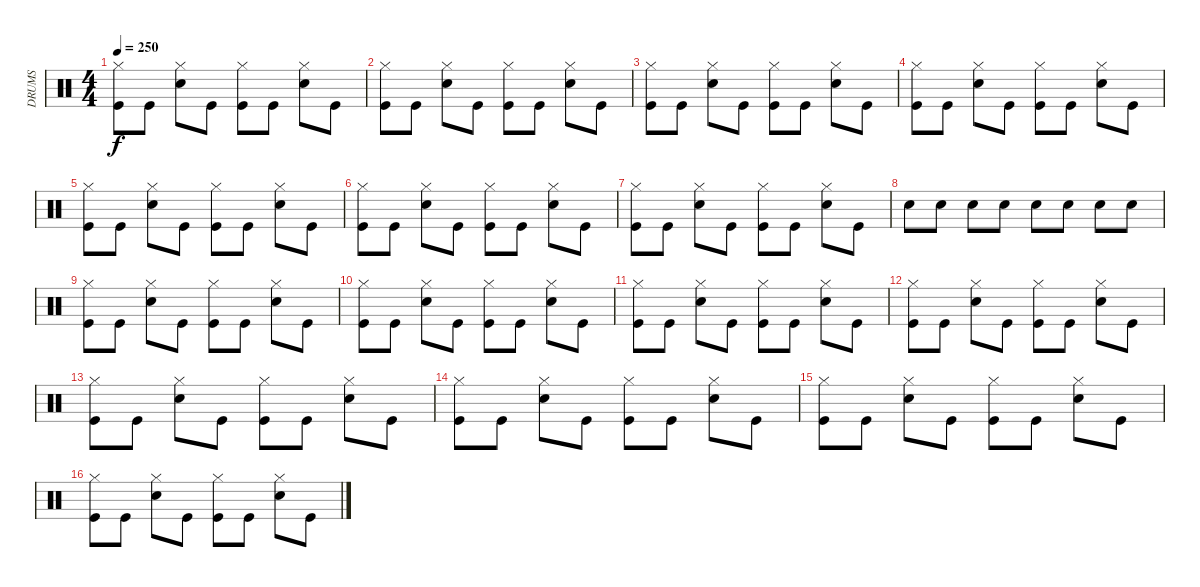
\track ("DRUMS" "DRUMS") {instrument percussion}
\staff {score}
\articulation defaults
\ts (4 4)
\tempo 250
\clef neutral
\ks aminor
("Hi-Hat (closed)" "Kick (hit)").8{dy f} "Kick (hit)".8 ("Hi-Hat (closed)" "Snare (hit) 2").8 "Kick (hit)".8 ("Hi-Hat (closed)" "Kick (hit)").8 "Kick (hit)".8 ("Hi-Hat (closed)" "Snare (hit) 2").8 "Kick (hit)".8 |
("Hi-Hat (closed)" "Kick (hit)").8 "Kick (hit)".8 ("Hi-Hat (closed)" "Snare (hit) 2").8 "Kick (hit)".8 ("Hi-Hat (closed)" "Kick (hit)").8 "Kick (hit)".8 ("Hi-Hat (closed)" "Snare (hit) 2").8 "Kick (hit)".8 |
("Hi-Hat (closed)" "Kick (hit)").8 "Kick (hit)".8 ("Hi-Hat (closed)" "Snare (hit) 2").8 "Kick (hit)".8 ("Hi-Hat (closed)" "Kick (hit)").8 "Kick (hit)".8 ("Hi-Hat (closed)" "Snare (hit) 2").8 "Kick (hit)".8 |
("Hi-Hat (closed)" "Kick (hit)").8 "Kick (hit)".8 ("Hi-Hat (closed)" "Snare (hit) 2").8 "Kick (hit)".8 ("Hi-Hat (closed)" "Kick (hit)").8 "Kick (hit)".8 ("Hi-Hat (closed)" "Snare (hit) 2").8 "Kick (hit)".8 |
("Hi-Hat (closed)" "Kick (hit)").8 "Kick (hit)".8 ("Hi-Hat (closed)" "Snare (hit) 2").8 "Kick (hit)".8 ("Hi-Hat (closed)" "Kick (hit)").8 "Kick (hit)".8 ("Hi-Hat (closed)" "Snare (hit) 2").8 "Kick (hit)".8 |
("Hi-Hat (closed)" "Kick (hit)").8 "Kick (hit)".8 ("Hi-Hat (closed)" "Snare (hit) 2").8 "Kick (hit)".8 ("Hi-Hat (closed)" "Kick (hit)").8 "Kick (hit)".8 ("Hi-Hat (closed)" "Snare (hit) 2").8 "Kick (hit)".8 |
("Hi-Hat (closed)" "Kick (hit)").8 "Kick (hit)".8 ("Hi-Hat (closed)" "Snare (hit) 2").8 "Kick (hit)".8 ("Hi-Hat (closed)" "Kick (hit)").8 "Kick (hit)".8 ("Hi-Hat (closed)" "Snare (hit) 2").8 "Kick (hit)".8 |
"Snare (hit) 2".8 "Snare (hit) 2".8 "Snare (hit) 2".8 "Snare (hit) 2".8 "Snare (hit) 2".8 "Snare (hit) 2".8 "Snare (hit) 2".8 "Snare (hit) 2".8 |
("Hi-Hat (closed)" "Kick (hit)").8 "Kick (hit)".8 ("Hi-Hat (closed)" "Snare (hit) 2").8 "Kick (hit)".8 ("Hi-Hat (closed)" "Kick (hit)").8 "Kick (hit)".8 ("Hi-Hat (closed)" "Snare (hit) 2").8 "Kick (hit)".8 |
("Hi-Hat (closed)" "Kick (hit)").8 "Kick (hit)".8 ("Hi-Hat (closed)" "Snare (hit) 2").8 "Kick (hit)".8 ("Hi-Hat (closed)" "Kick (hit)").8 "Kick (hit)".8 ("Hi-Hat (closed)" "Snare (hit) 2").8 "Kick (hit)".8 |
("Hi-Hat (closed)" "Kick (hit)").8 "Kick (hit)".8 ("Hi-Hat (closed)" "Snare (hit) 2").8 "Kick (hit)".8 ("Hi-Hat (closed)" "Kick (hit)").8 "Kick (hit)".8 ("Hi-Hat (closed)" "Snare (hit) 2").8 "Kick (hit)".8 |
("Hi-Hat (closed)" "Kick (hit)").8 "Kick (hit)".8 ("Hi-Hat (closed)" "Snare (hit) 2").8 "Kick (hit)".8 ("Hi-Hat (closed)" "Kick (hit)").8 "Kick (hit)".8 ("Hi-Hat (closed)" "Snare (hit) 2").8 "Kick (hit)".8 |
("Hi-Hat (closed)" "Kick (hit)").8 "Kick (hit)".8 ("Hi-Hat (closed)" "Snare (hit) 2").8 "Kick (hit)".8 ("Hi-Hat (closed)" "Kick (hit)").8 "Kick (hit)".8 ("Hi-Hat (closed)" "Snare (hit) 2").8 "Kick (hit)".8 |
("Hi-Hat (closed)" "Kick (hit)").8 "Kick (hit)".8 ("Hi-Hat (closed)" "Snare (hit) 2").8 "Kick (hit)".8 ("Hi-Hat (closed)" "Kick (hit)").8 "Kick (hit)".8 ("Hi-Hat (closed)" "Snare (hit) 2").8 "Kick (hit)".8 |
("Hi-Hat (closed)" "Kick (hit)").8 "Kick (hit)".8 ("Hi-Hat (closed)" "Snare (hit) 2").8 "Kick (hit)".8 ("Hi-Hat (closed)" "Kick (hit)").8 "Kick (hit)".8 ("Hi-Hat (closed)" "Snare (hit) 2").8 "Kick (hit)".8 |
("Hi-Hat (closed)" "Kick (hit)").8 "Kick (hit)".8 ("Hi-Hat (closed)" "Snare (hit) 2").8 "Kick (hit)".8 ("Hi-Hat (closed)" "Kick (hit)").8 "Kick (hit)".8 ("Hi-Hat (closed)" "Snare (hit) 2").8 "Kick (hit)".8
